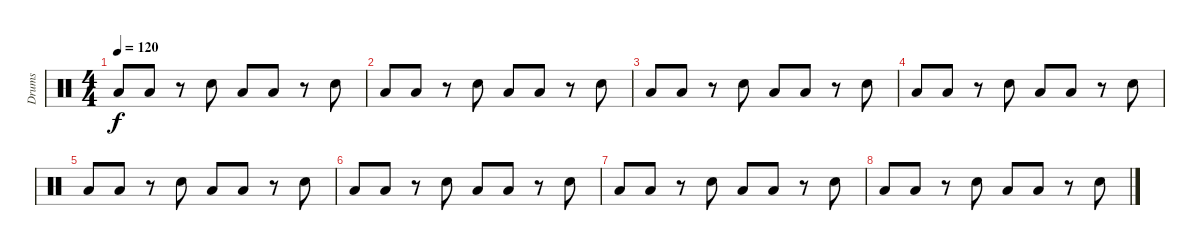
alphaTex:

\track ("Drums" "Drums") {instrument percussion}
\staff {score}
\articulation defaults
\ts (4 4)
\tempo 120
\clef neutral
\ks c "Low Tom (hit)".8{dy f} "Low Tom (hit)".8
r.8 "Electric Snare (hit)".8 "Low Tom (hit)".8 "Low Tom (hit)".8 r.8 "Electric Snare (hit)".8 |
"Low Tom (hit)".8 "Low Tom (hit)".8 r.8 "Electric Snare (hit)".8 "Low Tom (hit)".8 "Low Tom (hit)".8 r.8 "Electric Snare (hit)".8 |
"Low Tom (hit)".8 "Low Tom (hit)".8 r.8 "Electric Snare (hit)".8 "Low Tom (hit)".8 "Low Tom (hit)".8 r.8 "Electric Snare (hit)".8 |
"Low Tom (hit)".8 "Low Tom (hit)".8 r.8 "Electric Snare (hit)".8 "Low Tom (hit)".8 "Low Tom (hit)".8 r.8 "Electric Snare (hit)".8 |
"Low Tom (hit)".8 "Low Tom (hit)".8 r.8 "Electric Snare (hit)".8 "Low Tom (hit)".8 "Low Tom (hit)".8 r.8 "Electric Snare (hit)".8 |
"Low Tom (hit)".8 "Low Tom (hit)".8 r.8 "Electric Snare (hit)".8 "Low Tom (hit)".8 "Low Tom (hit)".8 r.8 "Electric Snare (hit)".8 |
"Low Tom (hit)".8 "Low Tom (hit)".8 r.8 "Electric Snare (hit)".8 "Low Tom (hit)".8 "Low Tom (hit)".8 r.8 "Electric Snare (hit)".8 |
"Low Tom (hit)".8 "Low Tom (hit)".8 r.8 "Electric Snare (hit)".8 "Low Tom (hit)".8 "Low Tom (hit)".8 r.8 "Electric Snare (hit)".8
